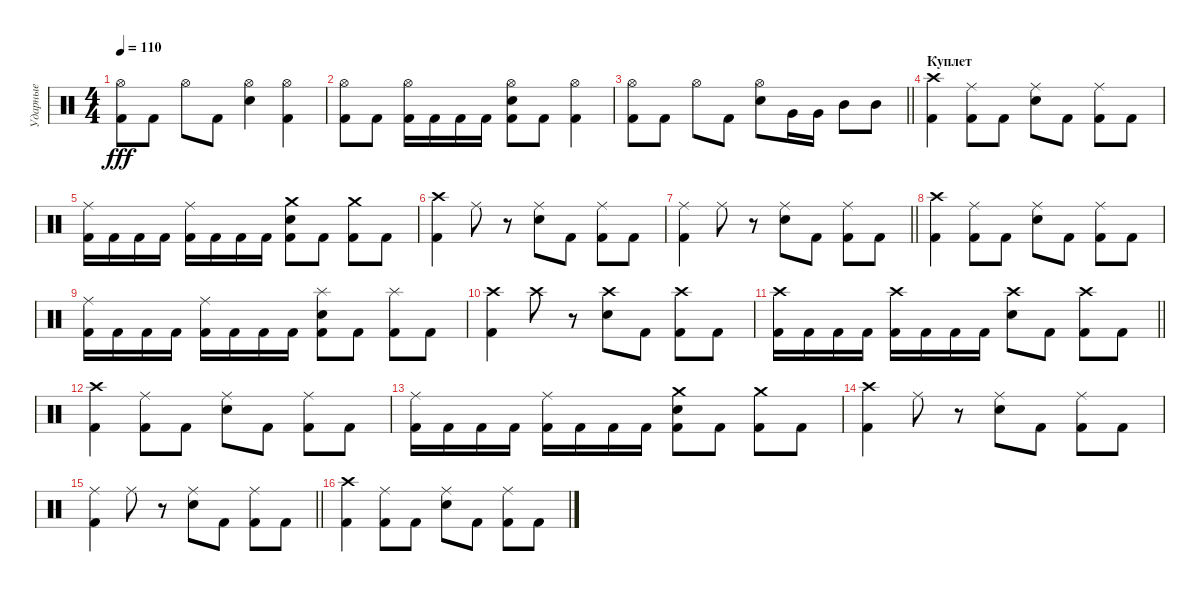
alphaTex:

\track ("Ударные" "Ударные") {mute instrument percussion}
\staff {score}
\articulation defaults
\ts (4 4)
\tempo 110
\clef neutral
\ks c
("Hi-Hat (open)" "Kick (hit) 2").8{dy fff} "Kick (hit) 2".8 "Hi-Hat (open)".8 "Kick (hit) 2".8 ("Hi-Hat (open)" "Snare (hit) 2").4 ("Hi-Hat (open)" "Kick (hit) 2").4 |
("Hi-Hat (open)" "Kick (hit) 2").8 "Kick (hit) 2".8 ("Hi-Hat (open)" "Kick (hit) 2").16 "Kick (hit) 2".16 "Kick (hit) 2".16 "Kick (hit) 2".16 ("Hi-Hat (open)" "Snare (hit) 2" "Kick (hit) 2").8 "Kick (hit) 2".8 ("Hi-Hat (open)" "Kick (hit) 2").4 |
\barLineRight lightlight
("Hi-Hat (open)" "Kick (hit) 2").8 "Kick (hit) 2".8 "Hi-Hat (open)".8 "Kick (hit) 2".8 ("Hi-Hat (open)" "Snare (hit) 2").8 "Very Low Tom (hit)".16 "Very Low Tom (hit)".16 "Mid Tom (hit)".8 "Mid Tom (hit)".8 |
\section ("" "Куплет")
("Crash high (hit)" "Kick (hit) 2").4 ("Ride (middle)" "Kick (hit) 2").8 "Kick (hit) 2".8 ("Ride (middle)" "Snare (hit) 2").8 "Kick (hit) 2".8 ("Ride (middle)" "Kick (hit) 2").8 "Kick (hit) 2".8 |
("Ride (middle)" "Kick (hit) 2").16 "Kick (hit) 2".16 "Kick (hit) 2".16 "Kick (hit) 2".16 ("Ride (middle)" "Kick (hit) 2").16 "Kick (hit) 2".16 "Kick (hit) 2".16 "Kick (hit) 2".16 ("Crash medium (hit)" "Snare (hit) 2" "Kick (hit) 2").8 "Kick (hit) 2".8 ("Crash medium (hit)" "Kick (hit) 2").8 "Kick (hit) 2".8 |
("Crash high (hit)" "Kick (hit) 2").4 "Ride (middle)".8 r.8 ("Ride (middle)" "Snare (hit) 2").8 "Kick (hit) 2".8 ("Ride (middle)" "Kick (hit) 2").8 "Kick (hit) 2".8 |
\barLineRight lightlight
("Ride (middle)" "Kick (hit) 2").4 "Ride (middle)".8 r.8 ("Ride (middle)" "Snare (hit) 2").8 "Kick (hit) 2".8 ("Ride (middle)" "Kick (hit) 2").8 "Kick (hit) 2".8 |
("Crash high (hit)" "Kick (hit) 2").4 ("Ride (middle)" "Kick (hit) 2").8 "Kick (hit) 2".8 ("Ride (middle)" "Snare (hit) 2").8 "Kick (hit) 2".8 ("Ride (middle)" "Kick (hit) 2").8 "Kick (hit) 2".8 |
("Ride (middle)" "Kick (hit) 2").16 "Kick (hit) 2".16 "Kick (hit) 2".16 "Kick (hit) 2".16 ("Ride (middle)" "Kick (hit) 2").16 "Kick (hit) 2".16 "Kick (hit) 2".16 "Kick (hit) 2".16 ("Splash (hit)" "Snare (hit) 2" "Kick (hit) 2").8 "Kick (hit) 2".8 ("Splash (hit)" "Kick (hit) 2").8 "Kick (hit) 2".8 |
("Crash high (hit)" "Kick (hit) 2").4 "Crash high (hit)".8 r.8 ("Crash high (hit)" "Snare (hit) 2").8 "Kick (hit) 2".8 ("Crash high (hit)" "Kick (hit) 2").8 "Kick (hit) 2".8 |
\barLineRight lightlight
("Crash high (hit)" "Kick (hit) 2").16 "Kick (hit) 2".16 "Kick (hit) 2".16 "Kick (hit) 2".16 ("Crash high (hit)" "Kick (hit) 2").16 "Kick (hit) 2".16 "Kick (hit) 2".16 "Kick (hit) 2".16 ("Crash high (hit)" "Snare (hit) 2").8 "Kick (hit) 2".8 ("Crash high (hit)" "Kick (hit) 2").8 "Kick (hit) 2".8 |
("Crash high (hit)" "Kick (hit) 2").4 ("Ride (middle)" "Kick (hit) 2").8 "Kick (hit) 2".8 ("Ride (middle)" "Snare (hit) 2").8 "Kick (hit) 2".8 ("Ride (middle)" "Kick (hit) 2").8 "Kick (hit) 2".8 |
("Ride (middle)" "Kick (hit) 2").16 "Kick (hit) 2".16 "Kick (hit) 2".16 "Kick (hit) 2".16 ("Ride (middle)" "Kick (hit) 2").16 "Kick (hit) 2".16 "Kick (hit) 2".16 "Kick (hit) 2".16 ("Crash medium (hit)" "Snare (hit) 2" "Kick (hit) 2").8 "Kick (hit) 2".8 ("Crash medium (hit)" "Kick (hit) 2").8 "Kick (hit) 2".8 |
("Crash high (hit)" "Kick (hit) 2").4 "Ride (middle)".8 r.8 ("Ride (middle)" "Snare (hit) 2").8 "Kick (hit) 2".8 ("Ride (middle)" "Kick (hit) 2").8 "Kick (hit) 2".8 |
\barLineRight lightlight
("Ride (middle)" "Kick (hit) 2").4 "Ride (middle)".8 r.8 ("Ride (middle)" "Snare (hit) 2").8 "Kick (hit) 2".8 ("Ride (middle)" "Kick (hit) 2").8 "Kick (hit) 2".8 |
("Crash high (hit)" "Kick (hit) 2").4 ("Ride (middle)" "Kick (hit) 2").8 "Kick (hit) 2".8 ("Ride (middle)" "Snare (hit) 2").8 "Kick (hit) 2".8 ("Ride (middle)" "Kick (hit) 2").8 "Kick (hit) 2".8
